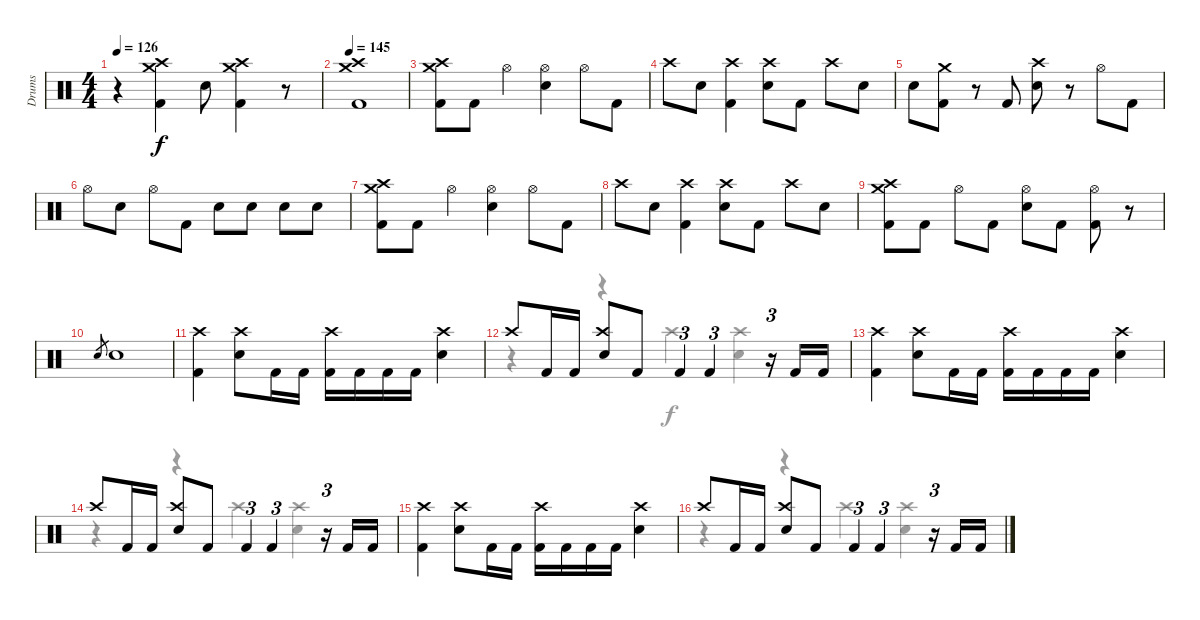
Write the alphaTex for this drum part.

\track ("Drums" "Drums") {instrument percussion}
\staff {score}
\articulation defaults
\voice
\ts (4 4)
\tempo 126
\clef neutral
\ks c
r.4{dy f} ("Crash high (hit)" "Crash medium (hit)" "Kick (hit) 2").4 "Electric Snare (hit)".8 ("Crash high (hit)" "Crash medium (hit)" "Kick (hit) 2").4 r.8 |
\tempo 145
("Crash high (hit)" "Crash medium (hit)" "Kick (hit) 2").1 |
("Crash high (hit)" "Crash medium (hit)" "Kick (hit) 2").8 "Kick (hit) 2".8 "Hi-Hat (open)".4 ("Hi-Hat (open)" "Electric Snare (hit)").4 "Hi-Hat (open)".8 "Kick (hit) 2".8 |
"Crash high (hit)".8 "Electric Snare (hit)".8 ("Crash high (hit)" "Kick (hit) 2").4 ("Crash high (hit)" "Electric Snare (hit)").8 "Kick (hit) 2".8 "Crash high (hit)".8 "Electric Snare (hit)".8 |
"Electric Snare (hit)".8 ("Crash medium (hit)" "Kick (hit) 2").8 r.8 "Kick (hit) 2".8 ("Crash high (hit)" "Electric Snare (hit)").8 r.8 "Hi-Hat (open)".8 "Kick (hit) 2".8 |
"Hi-Hat (open)".8 "Electric Snare (hit)".8 "Hi-Hat (open)".8 "Kick (hit) 2".8 "Electric Snare (hit)".8 "Electric Snare (hit)".8 "Electric Snare (hit)".8 "Electric Snare (hit)".8 |
("Crash high (hit)" "Crash medium (hit)" "Kick (hit) 2").8 "Kick (hit) 2".8 "Hi-Hat (open)".4 ("Hi-Hat (open)" "Electric Snare (hit)").4 "Hi-Hat (open)".8 "Kick (hit) 2".8 |
"Crash high (hit)".8 "Electric Snare (hit)".8 ("Crash high (hit)" "Kick (hit) 2").4 ("Crash high (hit)" "Electric Snare (hit)").8 "Kick (hit) 2".8 "Crash high (hit)".8 "Electric Snare (hit)".8 |
("Crash high (hit)" "Crash medium (hit)" "Kick (hit) 2").8 "Kick (hit) 2".8 "Hi-Hat (open)".8 "Kick (hit) 2".8 ("Hi-Hat (open)" "Electric Snare (hit)").8 "Kick (hit) 2".8 ("Hi-Hat (open)" "Kick (hit) 2").8 r.8 |
"Electric Snare (hit)".8{gr} "Electric Snare (hit)".1 |
("Crash high (hit)" "Kick (hit) 2").4 ("Crash high (hit)" "Electric Snare (hit)").8 "Kick (hit) 2".16 "Kick (hit) 2".16 ("Crash high (hit)" "Kick (hit) 2").16 "Kick (hit) 2".16 "Kick (hit) 2".16 "Kick (hit) 2".16 ("Crash high (hit)" "Electric Snare (hit)").4 |
"Crash high (hit)".8 "Kick (hit) 2".16 "Kick (hit) 2".16 ("Crash high (hit)" "Electric Snare (hit)").8 "Kick (hit) 2".8 "Kick (hit) 2".4{tu (3 2)} "Kick (hit) 2".4{tu (3 2)} r.16{tu (3 2)} "Kick (hit) 2".16 "Kick (hit) 2".16 |
("Crash high (hit)" "Kick (hit) 2").4 ("Crash high (hit)" "Electric Snare (hit)").8 "Kick (hit) 2".16 "Kick (hit) 2".16 ("Crash high (hit)" "Kick (hit) 2").16 "Kick (hit) 2".16 "Kick (hit) 2".16 "Kick (hit) 2".16 ("Crash high (hit)" "Electric Snare (hit)").4 |
"Crash high (hit)".8 "Kick (hit) 2".16 "Kick (hit) 2".16 ("Crash high (hit)" "Electric Snare (hit)").8 "Kick (hit) 2".8 "Kick (hit) 2".4{tu (3 2)} "Kick (hit) 2".4{tu (3 2)} r.16{tu (3 2)} "Kick (hit) 2".16 "Kick (hit) 2".16 |
("Crash high (hit)" "Kick (hit) 2").4 ("Crash high (hit)" "Electric Snare (hit)").8 "Kick (hit) 2".16 "Kick (hit) 2".16 ("Crash high (hit)" "Kick (hit) 2").16 "Kick (hit) 2".16 "Kick (hit) 2".16 "Kick (hit) 2".16 ("Crash high (hit)" "Electric Snare (hit)").4 |
"Crash high (hit)".8 "Kick (hit) 2".16 "Kick (hit) 2".16 ("Crash high (hit)" "Electric Snare (hit)").8 "Kick (hit) 2".8 "Kick (hit) 2".4{tu (3 2)} "Kick (hit) 2".4{tu (3 2)} r.16{tu (3 2)} "Kick (hit) 2".16 "Kick (hit) 2".16
\voice
\clef neutral
\ottava regular
\simile none
\ks c
|
|
|
|
|
|
|
|
|
|
|
r.4 r.4 "Crash high (hit)".4 ("Crash high (hit)" "Electric Snare (hit)").4 |
|
r.4 r.4 "Crash high (hit)".4 ("Crash high (hit)" "Electric Snare (hit)").4 |
|
r.4 r.4 "Crash high (hit)".4 ("Crash high (hit)" "Electric Snare (hit)").4
